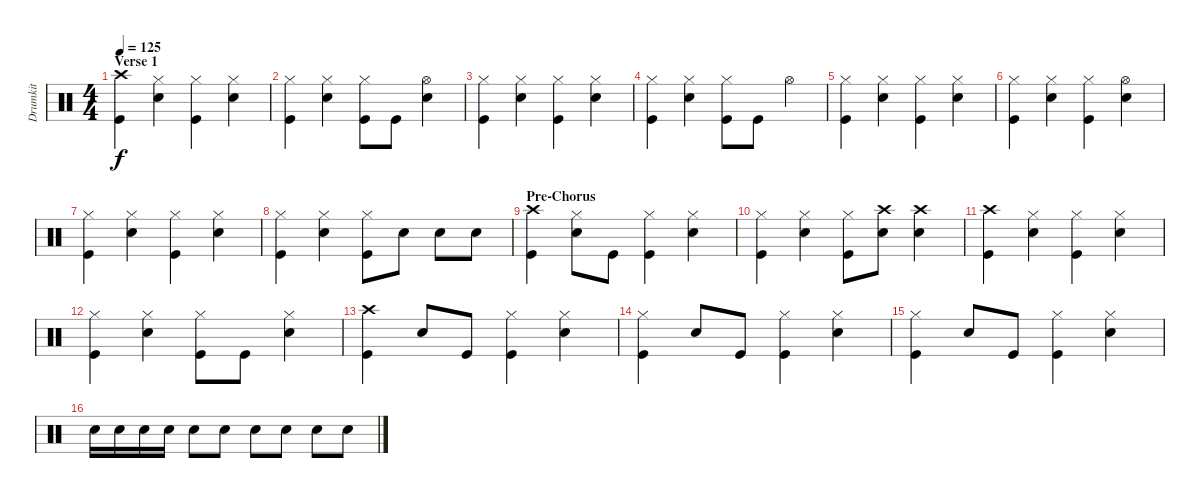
\track ("Drumkit" "Drumkit") {instrument percussion}
\staff {score}
\articulation defaults
\ts (4 4)
\section ("" "Verse 1")
\tempo 125
\clef neutral
\ks c
("Crash high (hit)" "Kick (hit)").4{dy f} ("Hi-Hat (closed)" "Snare (hit) 2").4 ("Hi-Hat (closed)" "Kick (hit)").4 ("Hi-Hat (closed)" "Snare (hit) 2").4 |
("Hi-Hat (closed)" "Kick (hit)").4 ("Hi-Hat (closed)" "Snare (hit) 2").4 ("Hi-Hat (closed)" "Kick (hit)").8 "Kick (hit)".8 ("Hi-Hat (open)" "Snare (hit) 2").4 |
("Hi-Hat (closed)" "Kick (hit)").4 ("Hi-Hat (closed)" "Snare (hit) 2").4 ("Hi-Hat (closed)" "Kick (hit)").4 ("Hi-Hat (closed)" "Snare (hit) 2").4 |
("Hi-Hat (closed)" "Kick (hit)").4 ("Hi-Hat (closed)" "Snare (hit) 2").4 ("Hi-Hat (closed)" "Kick (hit)").8 "Kick (hit)".8 "Hi-Hat (open)".4 |
("Hi-Hat (closed)" "Kick (hit)").4 ("Hi-Hat (closed)" "Snare (hit) 2").4 ("Hi-Hat (closed)" "Kick (hit)").4 ("Hi-Hat (closed)" "Snare (hit) 2").4 |
("Hi-Hat (closed)" "Kick (hit)").4 ("Hi-Hat (closed)" "Snare (hit) 2").4 ("Hi-Hat (closed)" "Kick (hit)").4 ("Hi-Hat (open)" "Snare (hit) 2").4 |
("Hi-Hat (closed)" "Kick (hit)").4 ("Hi-Hat (closed)" "Snare (hit) 2").4 ("Hi-Hat (closed)" "Kick (hit)").4 ("Hi-Hat (closed)" "Snare (hit) 2").4 |
("Hi-Hat (closed)" "Kick (hit)").4 ("Hi-Hat (closed)" "Snare (hit) 2").4 ("Hi-Hat (closed)" "Kick (hit)").8 "Snare (hit) 2".8 "Snare (hit) 2".8 "Snare (hit) 2".8 |
\section ("" "Pre-Chorus")
("Crash high (hit)" "Kick (hit)").4 ("Hi-Hat (closed)" "Snare (hit) 2").8 "Kick (hit)".8 ("Hi-Hat (closed)" "Kick (hit)").4 ("Hi-Hat (closed)" "Snare (hit) 2").4 |
("Hi-Hat (closed)" "Kick (hit)").4 ("Hi-Hat (closed)" "Snare (hit) 2").4 ("Hi-Hat (closed)" "Kick (hit)").8 ("Crash high (hit)" "Snare (hit) 2").8 ("Crash high (hit)" "Snare (hit) 2").4 |
("Crash high (hit)" "Kick (hit)").4 ("Hi-Hat (closed)" "Snare (hit) 2").4 ("Hi-Hat (closed)" "Kick (hit)").4 ("Hi-Hat (closed)" "Snare (hit) 2").4 |
("Hi-Hat (closed)" "Kick (hit)").4 ("Hi-Hat (closed)" "Snare (hit) 2").4 ("Hi-Hat (closed)" "Kick (hit)").8 "Kick (hit)".8 ("Hi-Hat (closed)" "Snare (hit) 2").4 |
("Crash high (hit)" "Kick (hit)").4 "Snare (hit) 2".8 "Kick (hit)".8 ("Hi-Hat (closed)" "Kick (hit)").4 ("Hi-Hat (closed)" "Snare (hit) 2").4 |
("Hi-Hat (closed)" "Kick (hit)").4 "Snare (hit) 2".8 "Kick (hit)".8 ("Hi-Hat (closed)" "Kick (hit)").4 ("Hi-Hat (closed)" "Snare (hit) 2").4 |
("Hi-Hat (closed)" "Kick (hit)").4 "Snare (hit) 2".8 "Kick (hit)".8 ("Hi-Hat (closed)" "Kick (hit)").4 ("Hi-Hat (closed)" "Snare (hit) 2").4 |
"Snare (hit) 2".16 "Snare (hit) 2".16 "Snare (hit) 2".16 "Snare (hit) 2".16 "Snare (hit) 2".8 "Snare (hit) 2".8 "Snare (hit) 2".8 "Snare (hit) 2".8 "Snare (hit) 2".8 "Snare (hit) 2".8
